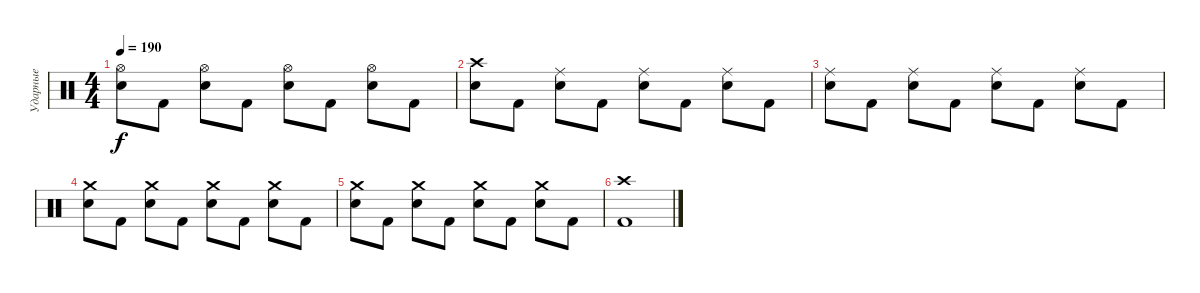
\track ("Ударные" "Ударные") {instrument percussion}
\staff {score}
\articulation defaults
\ts (4 4)
\tempo 190
\clef neutral
\ks c
("Hi-Hat (open)" "Electric Snare (hit)").8{dy f} "Kick (hit) 2".8 ("Hi-Hat (open)" "Electric Snare (hit)").8 "Kick (hit) 2".8 ("Hi-Hat (open)" "Electric Snare (hit)").8 "Kick (hit) 2".8 ("Hi-Hat (open)" "Electric Snare (hit)").8 "Kick (hit) 2".8 |
("Crash high (hit)" "Electric Snare (hit)").8 "Kick (hit) 2".8 ("Ride (middle)" "Electric Snare (hit)").8 "Kick (hit) 2".8 ("Ride (middle)" "Electric Snare (hit)").8 "Kick (hit) 2".8 ("Ride (middle)" "Electric Snare (hit)").8 "Kick (hit) 2".8 |
("Ride (middle)" "Electric Snare (hit)").8 "Kick (hit) 2".8 ("Ride (middle)" "Electric Snare (hit)").8 "Kick (hit) 2".8 ("Ride (middle)" "Electric Snare (hit)").8 "Kick (hit) 2".8 ("Ride (middle)" "Electric Snare (hit)").8 "Kick (hit) 2".8 |
("Crash medium (hit)" "Electric Snare (hit)").8 "Kick (hit) 2".8 ("Crash medium (hit)" "Electric Snare (hit)").8 "Kick (hit) 2".8 ("Crash medium (hit)" "Electric Snare (hit)").8 "Kick (hit) 2".8 ("Crash medium (hit)" "Electric Snare (hit)").8 "Kick (hit) 2".8 |
("Crash medium (hit)" "Electric Snare (hit)").8 "Kick (hit) 2".8 ("Crash medium (hit)" "Electric Snare (hit)").8 "Kick (hit) 2".8 ("Crash medium (hit)" "Electric Snare (hit)").8 "Kick (hit) 2".8 ("Crash medium (hit)" "Electric Snare (hit)").8 "Kick (hit) 2".8 |
("Crash high (hit)" "Kick (hit) 2").1
